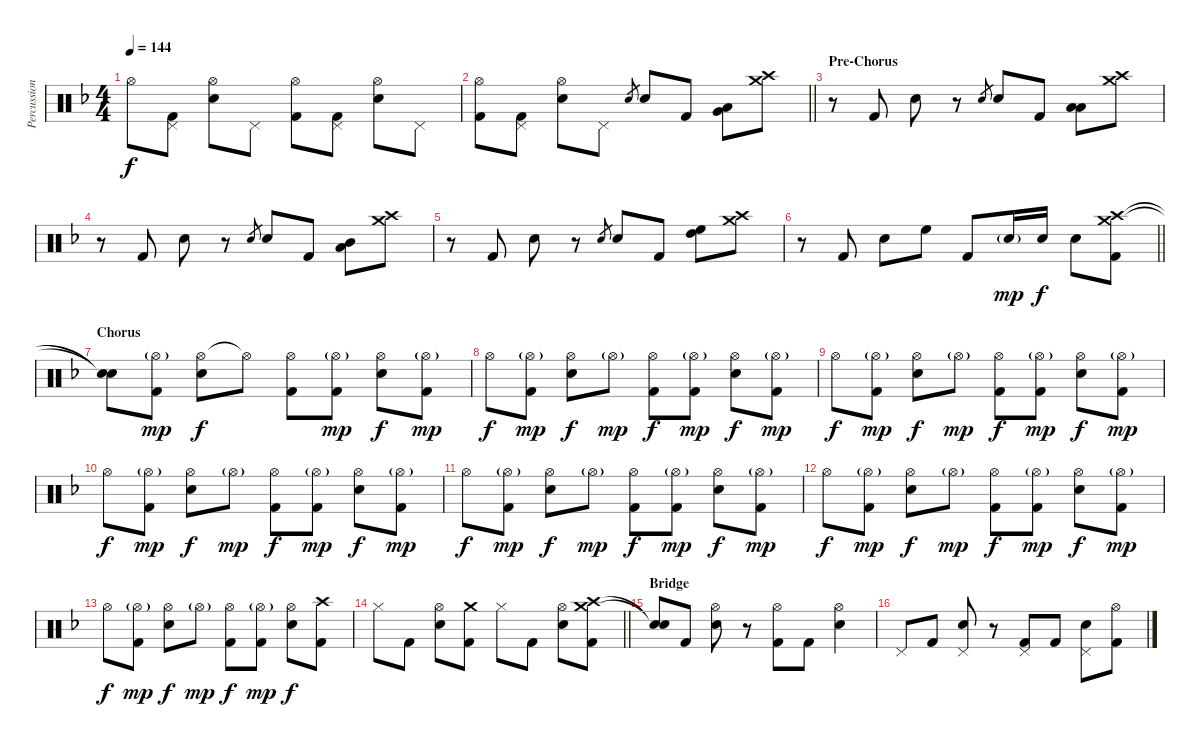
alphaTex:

\track ("Percussion" "Percussion") {instrument percussion}
\staff {score}
\articulation defaults
\ts (4 4)
\tempo 144
\clef neutral
\ks f "Hi-Hat (open)".8{dy f}
("Pedal Hi-Hat (hit)" "Kick (hit) 2").8 ("Electric Snare (hit)" "Hi-Hat (open)").8 "Pedal Hi-Hat (hit)".8 ("Hi-Hat (open)" "Kick (hit) 2").8 ("Pedal Hi-Hat (hit)" "Kick (hit) 2").8 ("Electric Snare (hit)" "Hi-Hat (open)").8 "Pedal Hi-Hat (hit)".8 |
\barLineRight lightlight
("Hi-Hat (open)" "Kick (hit) 2").8 ("Pedal Hi-Hat (hit)" "Kick (hit) 2").8 ("Electric Snare (hit)" "Hi-Hat (open)").8 "Pedal Hi-Hat (hit)".8 "Electric Snare (hit)".8{gr} "Electric Snare (hit)".8 "Kick (hit) 2".8 ("Low Floor Tom (hit)" "Very Low Tom (hit)").8 ("Crash high (hit)" "Crash medium (hit)").8 |
\section ("" "Pre-Chorus")
r.8 "Kick (hit) 2".8 "Electric Snare (hit)".8 r.8 "Electric Snare (hit)".8{gr} "Electric Snare (hit)".8 "Kick (hit) 2".8 ("Low Tom (hit)" "Low Floor Tom (hit)").8 ("Crash medium (hit)" "Crash high (hit)").8 |
r.8 "Kick (hit) 2".8 "Electric Snare (hit)".8 r.8 "Electric Snare (hit)".8{gr} "Electric Snare (hit)".8 "Kick (hit) 2".8 ("Low Tom (hit)" "Mid Tom (hit)").8 ("Crash medium (hit)" "Crash high (hit)").8 |
r.8 "Kick (hit) 2".8 "Electric Snare (hit)".8 r.8 "Electric Snare (hit)".8{gr} "Electric Snare (hit)".8 "Kick (hit) 2".8 ("High Floor Tom (hit)" "High Tom (hit)").8 ("Crash medium (hit)" "Crash high (hit)").8 |
\barLineRight lightlight
r.8 "Kick (hit) 2".8 "Electric Snare (hit)".8 "High Floor Tom (hit)".8 "Kick (hit) 2".8 "Electric Snare (hit)"{g}.16{dy mp} "Electric Snare (hit)".16{dy f} "Electric Snare (hit)".8 ("Crash medium (hit)" "Crash high (hit)" "Kick (hit) 2").8 |
\section ("" "Chorus")
("Snare (hit)"{t} "Snare (hit)"{t}).8 ("Hi-Hat (open)"{g} "Kick (hit) 2").8{dy mp} ("Hi-Hat (open)" "Electric Snare (hit)").8{dy f} "Hi-Hat (open)"{t}.8 ("Hi-Hat (open)" "Kick (hit) 2").8 ("Hi-Hat (open)"{g} "Kick (hit) 2").8{dy mp} ("Hi-Hat (open)" "Electric Snare (hit)").8{dy f} ("Hi-Hat (open)"{g} "Kick (hit) 2").8{dy mp} |
"Hi-Hat (open)".8{dy f} ("Hi-Hat (open)"{g} "Kick (hit) 2").8{dy mp} ("Hi-Hat (open)" "Electric Snare (hit)").8{dy f} "Hi-Hat (open)"{g}.8{dy mp} ("Hi-Hat (open)" "Kick (hit) 2").8{dy f} ("Hi-Hat (open)"{g} "Kick (hit) 2").8{dy mp} ("Hi-Hat (open)" "Electric Snare (hit)").8{dy f} ("Hi-Hat (open)"{g} "Kick (hit) 2").8{dy mp} |
"Hi-Hat (open)".8{dy f} ("Hi-Hat (open)"{g} "Kick (hit) 2").8{dy mp} ("Hi-Hat (open)" "Electric Snare (hit)").8{dy f} "Hi-Hat (open)"{g}.8{dy mp} ("Hi-Hat (open)" "Kick (hit) 2").8{dy f} ("Hi-Hat (open)"{g} "Kick (hit) 2").8{dy mp} ("Hi-Hat (open)" "Electric Snare (hit)").8{dy f} ("Hi-Hat (open)"{g} "Kick (hit) 2").8{dy mp} |
"Hi-Hat (open)".8{dy f} ("Hi-Hat (open)"{g} "Kick (hit) 2").8{dy mp} ("Hi-Hat (open)" "Electric Snare (hit)").8{dy f} "Hi-Hat (open)"{g}.8{dy mp} ("Hi-Hat (open)" "Kick (hit) 2").8{dy f} ("Hi-Hat (open)"{g} "Kick (hit) 2").8{dy mp} ("Hi-Hat (open)" "Electric Snare (hit)").8{dy f} ("Hi-Hat (open)"{g} "Kick (hit) 2").8{dy mp} |
"Hi-Hat (open)".8{dy f} ("Hi-Hat (open)"{g} "Kick (hit) 2").8{dy mp} ("Hi-Hat (open)" "Electric Snare (hit)").8{dy f} "Hi-Hat (open)"{g}.8{dy mp} ("Hi-Hat (open)" "Kick (hit) 2").8{dy f} ("Hi-Hat (open)"{g} "Kick (hit) 2").8{dy mp} ("Hi-Hat (open)" "Electric Snare (hit)").8{dy f} ("Hi-Hat (open)"{g} "Kick (hit) 2").8{dy mp} |
"Hi-Hat (open)".8{dy f} ("Hi-Hat (open)"{g} "Kick (hit) 2").8{dy mp} ("Hi-Hat (open)" "Electric Snare (hit)").8{dy f} "Hi-Hat (open)"{g}.8{dy mp} ("Hi-Hat (open)" "Kick (hit) 2").8{dy f} ("Hi-Hat (open)"{g} "Kick (hit) 2").8{dy mp} ("Hi-Hat (open)" "Electric Snare (hit)").8{dy f} ("Hi-Hat (open)"{g} "Kick (hit) 2").8{dy mp} |
"Hi-Hat (open)".8{dy f} ("Hi-Hat (open)"{g} "Kick (hit) 2").8{dy mp} ("Hi-Hat (open)" "Electric Snare (hit)").8{dy f} "Hi-Hat (open)"{g}.8{dy mp} ("Hi-Hat (open)" "Kick (hit) 2").8{dy f} ("Hi-Hat (open)"{g} "Kick (hit) 2").8{dy mp} ("Hi-Hat (open)" "Electric Snare (hit)").8{dy f} ("Crash high (hit)" "Kick (hit) 2").8 |
\barLineRight lightlight "Hi-Hat (closed)".8 "Kick (hit) 2".8
("Hi-Hat (open)" "Electric Snare (hit)").8 ("Crash medium (hit)" "Kick (hit) 2").8 "Hi-Hat (closed)".8 "Kick (hit) 2".8 ("Hi-Hat (open)" "Electric Snare (hit)").8 ("Crash medium (hit)" "Crash high (hit)" "Kick (hit) 2").8 |
\section ("" "Bridge")
("Snare (hit)"{t} "Snare (hit)"{t}).8 "Kick (hit) 2".8 ("Electric Snare (hit)" "Hi-Hat (open)").8 r.8 ("Hi-Hat (open)" "Kick (hit) 2").8 "Kick (hit) 2".8 ("Electric Snare (hit)" "Hi-Hat (open)").4 |
"Pedal Hi-Hat (hit)".8 "Kick (hit) 2".8 ("Electric Snare (hit)" "Pedal Hi-Hat (hit)").8 r.8 ("Pedal Hi-Hat (hit)" "Kick (hit) 2").8 "Kick (hit) 2".8 ("Electric Snare (hit)" "Pedal Hi-Hat (hit)").8 ("Hi-Hat (open)" "Kick (hit) 2").8
